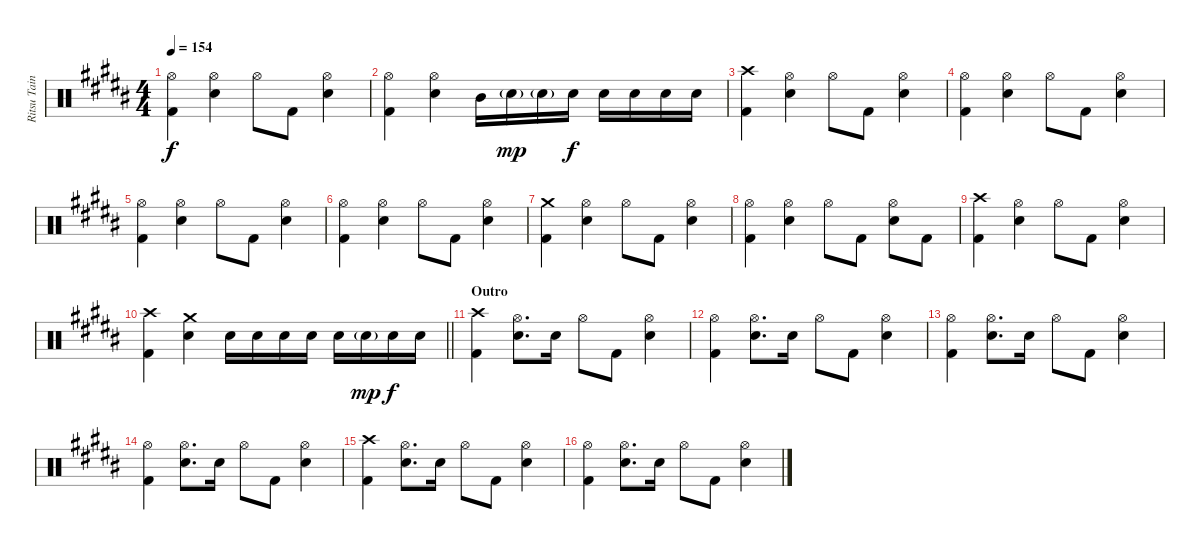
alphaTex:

\track ("Ritsu Tainaka" "Ritsu Tain") {instrument percussion}
\staff {score}
\articulation defaults
\ts (4 4)
\tempo 154
\clef neutral
\ks b
("Hi-Hat (open)" "Kick (hit) 2").4{dy f} ("Hi-Hat (open)" "Snare (hit) 2").4 "Hi-Hat (open)".8 "Kick (hit) 2".8 ("Hi-Hat (open)" "Snare (hit) 2").4 |
("Hi-Hat (open)" "Kick (hit) 2").4 ("Hi-Hat (open)" "Snare (hit) 2").4 "Mid Tom (hit)".16 "Snare (hit) 2"{g}.16{dy mp} "Snare (hit) 2"{g}.16 "Snare (hit) 2".16{dy f} "Snare (hit) 2".16 "Snare (hit) 2".16 "Snare (hit) 2".16 "Snare (hit) 2".16 |
("Crash high (hit)" "Kick (hit) 2").4 ("Hi-Hat (open)" "Snare (hit) 2").4 "Hi-Hat (open)".8 "Kick (hit) 2".8 ("Hi-Hat (open)" "Snare (hit) 2").4 |
("Hi-Hat (open)" "Kick (hit) 2").4 ("Hi-Hat (open)" "Snare (hit) 2").4 "Hi-Hat (open)".8 "Kick (hit) 2".8 ("Hi-Hat (open)" "Snare (hit) 2").4 |
("Hi-Hat (open)" "Kick (hit) 2").4 ("Hi-Hat (open)" "Snare (hit) 2").4 "Hi-Hat (open)".8 "Kick (hit) 2".8 ("Hi-Hat (open)" "Snare (hit) 2").4 |
("Hi-Hat (open)" "Kick (hit) 2").4 ("Hi-Hat (open)" "Snare (hit) 2").4 "Hi-Hat (open)".8 "Kick (hit) 2".8 ("Hi-Hat (open)" "Snare (hit) 2").4 |
("Crash medium (hit)" "Kick (hit) 2").4 ("Hi-Hat (open)" "Snare (hit) 2").4 "Hi-Hat (open)".8 "Kick (hit) 2".8 ("Hi-Hat (open)" "Snare (hit) 2").4 |
("Hi-Hat (open)" "Kick (hit) 2").4 ("Hi-Hat (open)" "Snare (hit) 2").4 "Hi-Hat (open)".8 "Kick (hit) 2".8 ("Hi-Hat (open)" "Snare (hit) 2").8 "Kick (hit) 2".8 |
("Crash high (hit)" "Kick (hit) 2").4 ("Hi-Hat (open)" "Snare (hit) 2").4 "Hi-Hat (open)".8 "Kick (hit) 2".8 ("Hi-Hat (open)" "Snare (hit) 2").4 |
\barLineRight lightlight
("Crash high (hit)" "Kick (hit) 2").4 ("Crash medium (hit)" "Snare (hit) 2").4 "Snare (hit) 2".16 "Snare (hit) 2".16 "Snare (hit) 2".16 "Snare (hit) 2".16 "Snare (hit) 2".16 "Snare (hit) 2"{g}.16{dy mp} "Snare (hit) 2".16{dy f} "Snare (hit) 2".16 |
\section ("" "Outro")
("Crash high (hit)" "Kick (hit) 2").4 ("Hi-Hat (open)" "Snare (hit) 2").8{d} "Snare (hit) 2".16 "Hi-Hat (open)".8 "Kick (hit) 2".8 ("Hi-Hat (open)" "Snare (hit) 2").4 |
("Hi-Hat (open)" "Kick (hit) 2").4 ("Hi-Hat (open)" "Snare (hit) 2").8{d} "Snare (hit) 2".16 "Hi-Hat (open)".8 "Kick (hit) 2".8 ("Hi-Hat (open)" "Snare (hit) 2").4 |
("Hi-Hat (open)" "Kick (hit) 2").4 ("Hi-Hat (open)" "Snare (hit) 2").8{d} "Snare (hit) 2".16 "Hi-Hat (open)".8 "Kick (hit) 2".8 ("Hi-Hat (open)" "Snare (hit) 2").4 |
("Hi-Hat (open)" "Kick (hit) 2").4 ("Hi-Hat (open)" "Snare (hit) 2").8{d} "Snare (hit) 2".16 "Hi-Hat (open)".8 "Kick (hit) 2".8 ("Hi-Hat (open)" "Snare (hit) 2").4 |
("Crash high (hit)" "Kick (hit) 2").4 ("Hi-Hat (open)" "Snare (hit) 2").8{d} "Snare (hit) 2".16 "Hi-Hat (open)".8 "Kick (hit) 2".8 ("Hi-Hat (open)" "Snare (hit) 2").4 |
("Hi-Hat (open)" "Kick (hit) 2").4 ("Hi-Hat (open)" "Snare (hit) 2").8{d} "Snare (hit) 2".16 "Hi-Hat (open)".8 "Kick (hit) 2".8 ("Hi-Hat (open)" "Snare (hit) 2").4
